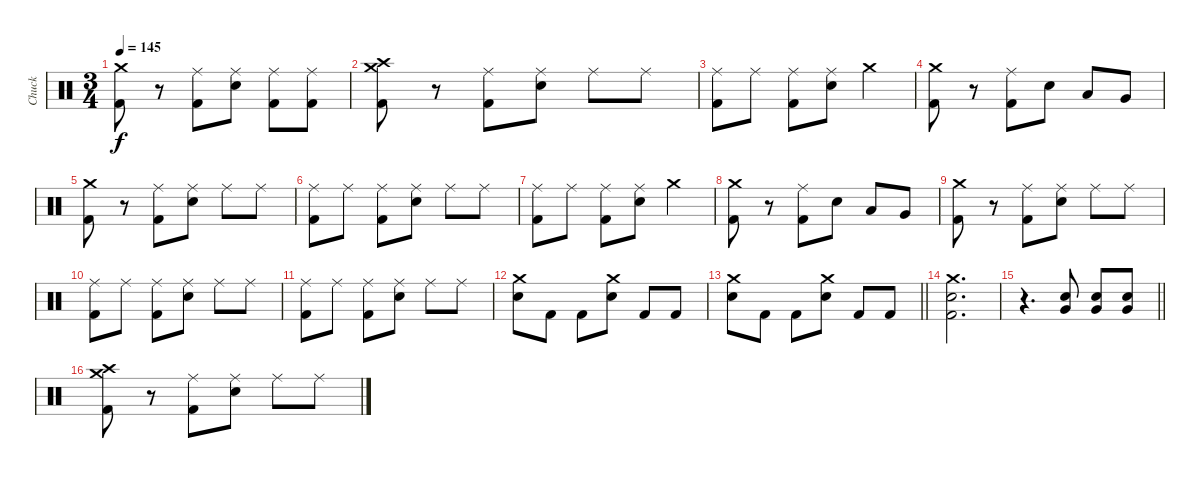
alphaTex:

\track ("Chuck" "Chuck") {instrument percussion}
\staff {score}
\articulation defaults
\ts (3 4)
\tempo 145
\clef neutral
\ks c
("Crash medium (hit)" "Kick (hit) 2").8{dy f} r.8 ("Ride (middle)" "Kick (hit) 2").8 ("Ride (middle)" "Electric Snare (hit)").8 ("Ride (middle)" "Kick (hit) 2").8 ("Ride (middle)" "Kick (hit) 2").8 |
("Crash medium (hit)" "Crash high (hit)" "Kick (hit) 2").8 r.8 ("Ride (middle)" "Kick (hit) 2").8 ("Ride (middle)" "Electric Snare (hit)").8 "Ride (middle)".8 "Ride (middle)".8 |
("Ride (middle)" "Kick (hit) 2").8 "Ride (middle)".8 ("Ride (middle)" "Kick (hit) 2").8 ("Ride (middle)" "Electric Snare (hit)").8 "Crash medium (hit)".4 |
("Crash medium (hit)" "Kick (hit) 2").8 r.8 ("Ride (middle)" "Kick (hit) 2").8 "Electric Snare (hit)".8 "Low Tom (hit)".8 "Very Low Tom (hit)".8 |
("Crash medium (hit)" "Kick (hit) 2").8 r.8 ("Ride (middle)" "Kick (hit) 2").8 ("Ride (middle)" "Electric Snare (hit)").8 "Ride (middle)".8 "Ride (middle)".8 |
("Ride (middle)" "Kick (hit) 2").8 "Ride (middle)".8 ("Ride (middle)" "Kick (hit) 2").8 ("Ride (middle)" "Electric Snare (hit)").8 "Ride (middle)".8 "Ride (middle)".8 |
("Ride (middle)" "Kick (hit) 2").8 "Ride (middle)".8 ("Ride (middle)" "Kick (hit) 2").8 ("Ride (middle)" "Electric Snare (hit)").8 "Crash medium (hit)".4 |
("Crash medium (hit)" "Kick (hit) 2").8 r.8 ("Ride (middle)" "Kick (hit) 2").8 "Electric Snare (hit)".8 "Low Tom (hit)".8 "Very Low Tom (hit)".8 |
("Crash medium (hit)" "Kick (hit) 2").8 r.8 ("Ride (middle)" "Kick (hit) 2").8 ("Ride (middle)" "Electric Snare (hit)").8 "Ride (middle)".8 "Ride (middle)".8 |
("Ride (middle)" "Kick (hit) 2").8 "Ride (middle)".8 ("Ride (middle)" "Kick (hit) 2").8 ("Ride (middle)" "Electric Snare (hit)").8 "Ride (middle)".8 "Ride (middle)".8 |
("Ride (middle)" "Kick (hit) 2").8 "Ride (middle)".8 ("Ride (middle)" "Kick (hit) 2").8 ("Ride (middle)" "Electric Snare (hit)").8 "Ride (middle)".8 "Ride (middle)".8 |
("Crash medium (hit)" "Electric Snare (hit)").8 "Kick (hit) 2".8 "Kick (hit) 2".8 ("Crash medium (hit)" "Electric Snare (hit)").8 "Kick (hit) 2".8 "Kick (hit) 2".8 |
\barLineRight lightlight
("Crash medium (hit)" "Electric Snare (hit)").8 "Kick (hit) 2".8 "Kick (hit) 2".8 ("Crash medium (hit)" "Electric Snare (hit)").8 "Kick (hit) 2".8 "Kick (hit) 2".8 |
("Crash medium (hit)" "Electric Snare (hit)" "Kick (hit) 2").2{d} |
\barLineRight lightlight
r.4{d} ("Electric Snare (hit)" "Very Low Tom (hit)").8 ("Electric Snare (hit)" "Very Low Tom (hit)").8 ("Electric Snare (hit)" "Very Low Tom (hit)").8 |
("Crash medium (hit)" "Crash high (hit)" "Kick (hit) 2").8 r.8 ("Ride (middle)" "Kick (hit) 2").8 ("Ride (middle)" "Electric Snare (hit)").8 "Ride (middle)".8 "Ride (middle)".8
